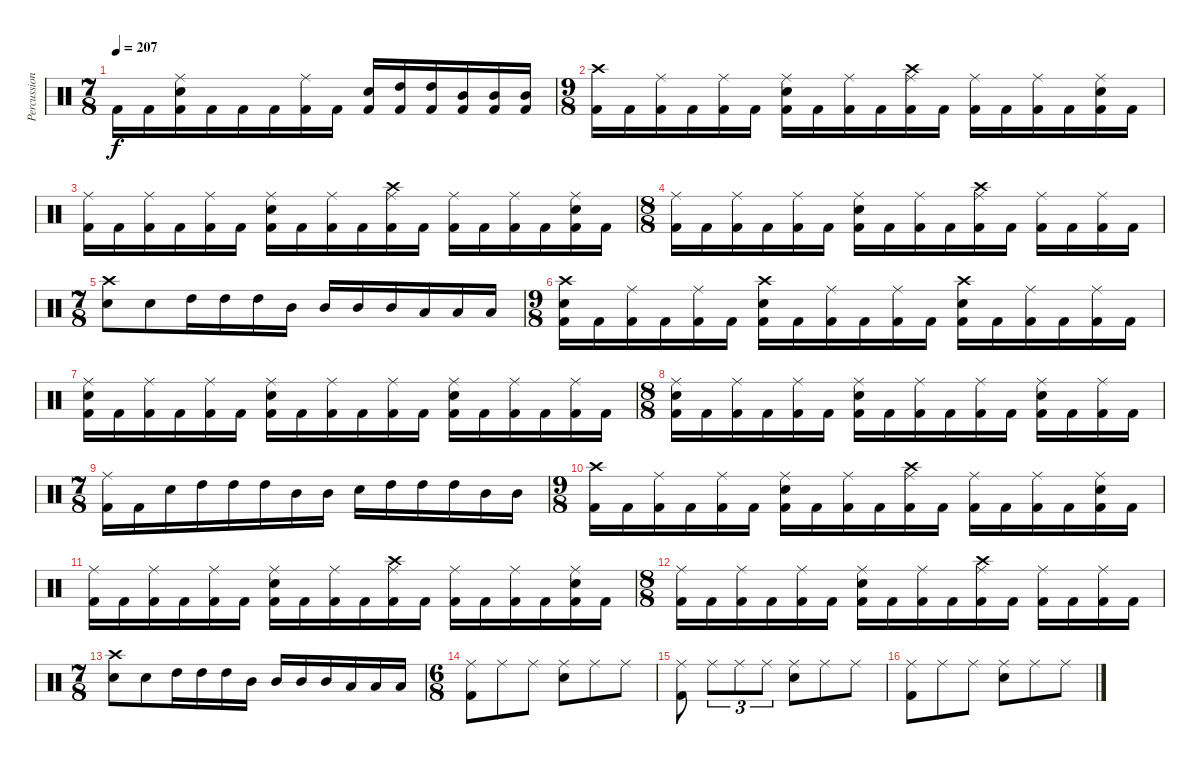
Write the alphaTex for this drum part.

\track ("Percussion" "Percussion") {instrument percussion}
\staff {score}
\articulation defaults
\ts (7 8)
\tempo 207
\clef neutral
\ks c "Kick (hit) 2".16{dy f} "Kick (hit) 2".16
("Ride (middle)" "Electric Snare (hit)" "Kick (hit) 2").16 "Kick (hit) 2".16 "Kick (hit) 2".16 "Kick (hit) 2".16 ("Ride (middle)" "Kick (hit) 2").16 "Kick (hit) 2".16 ("Electric Snare (hit)" "Kick (hit) 2").16 ("High Tom (hit)" "Kick (hit) 2").16 ("High Tom (hit)" "Kick (hit) 2").16 ("Mid Tom (hit)" "Kick (hit) 2").16 ("Mid Tom (hit)" "Kick (hit) 2").16 ("Mid Tom (hit)" "Kick (hit) 2").16 |
\ts (9 8)
("Crash high (hit)" "Kick (hit) 2").16 "Kick (hit) 2".16 ("Ride (middle)" "Kick (hit) 2").16 "Kick (hit) 2".16 ("Ride (middle)" "Kick (hit) 2").16 "Kick (hit) 2".16 ("Ride (middle)" "Electric Snare (hit)" "Kick (hit) 2").16 "Kick (hit) 2".16 ("Ride (middle)" "Kick (hit) 2").16 "Kick (hit) 2".16 ("Ride (middle)" "Crash high (hit)" "Kick (hit) 2").16 "Kick (hit) 2".16 ("Ride (middle)" "Kick (hit) 2").16 "Kick (hit) 2".16 ("Ride (middle)" "Kick (hit) 2").16 "Kick (hit) 2".16 ("Ride (middle)" "Electric Snare (hit)" "Kick (hit) 2").16 "Kick (hit) 2".16 |
("Ride (middle)" "Kick (hit) 2").16 "Kick (hit) 2".16 ("Ride (middle)" "Kick (hit) 2").16 "Kick (hit) 2".16 ("Ride (middle)" "Kick (hit) 2").16 "Kick (hit) 2".16 ("Ride (middle)" "Electric Snare (hit)" "Kick (hit) 2").16 "Kick (hit) 2".16 ("Ride (middle)" "Kick (hit) 2").16 "Kick (hit) 2".16 ("Ride (middle)" "Crash high (hit)" "Kick (hit) 2").16 "Kick (hit) 2".16 ("Ride (middle)" "Kick (hit) 2").16 "Kick (hit) 2".16 ("Ride (middle)" "Kick (hit) 2").16 "Kick (hit) 2".16 ("Ride (middle)" "Electric Snare (hit)" "Kick (hit) 2").16 "Kick (hit) 2".16 |
\ts (8 8)
("Ride (middle)" "Kick (hit) 2").16 "Kick (hit) 2".16 ("Ride (middle)" "Kick (hit) 2").16 "Kick (hit) 2".16 ("Ride (middle)" "Kick (hit) 2").16 "Kick (hit) 2".16 ("Ride (middle)" "Electric Snare (hit)" "Kick (hit) 2").16 "Kick (hit) 2".16 ("Ride (middle)" "Kick (hit) 2").16 "Kick (hit) 2".16 ("Ride (middle)" "Crash high (hit)" "Kick (hit) 2").16 "Kick (hit) 2".16 ("Ride (middle)" "Kick (hit) 2").16 "Kick (hit) 2".16 ("Ride (middle)" "Kick (hit) 2").16 "Kick (hit) 2".16 |
\ts (7 8)
("Crash high (hit)" "Electric Snare (hit)").8 "Electric Snare (hit)".8 "High Tom (hit)".16 "High Tom (hit)".16 "High Tom (hit)".16 "Mid Tom (hit)".16 "Mid Tom (hit)".16 "Mid Tom (hit)".16 "Mid Tom (hit)".16 "Low Tom (hit)".16 "Low Tom (hit)".16 "Low Tom (hit)".16 |
\ts (9 8)
("Crash high (hit)" "Electric Snare (hit)" "Kick (hit) 2").16 "Kick (hit) 2".16 ("Ride (middle)" "Kick (hit) 2").16 "Kick (hit) 2".16 ("Ride (middle)" "Kick (hit) 2").16 "Kick (hit) 2".16 ("Crash high (hit)" "Electric Snare (hit)" "Kick (hit) 2").16 "Kick (hit) 2".16 ("Ride (middle)" "Kick (hit) 2").16 "Kick (hit) 2".16 ("Ride (middle)" "Kick (hit) 2").16 "Kick (hit) 2".16 ("Crash high (hit)" "Electric Snare (hit)" "Kick (hit) 2").16 "Kick (hit) 2".16 ("Ride (middle)" "Kick (hit) 2").16 "Kick (hit) 2".16 ("Ride (middle)" "Kick (hit) 2").16 "Kick (hit) 2".16 |
("Ride (middle)" "Electric Snare (hit)" "Kick (hit) 2").16 "Kick (hit) 2".16 ("Ride (middle)" "Kick (hit) 2").16 "Kick (hit) 2".16 ("Ride (middle)" "Kick (hit) 2").16 "Kick (hit) 2".16 ("Ride (middle)" "Electric Snare (hit)" "Kick (hit) 2").16 "Kick (hit) 2".16 ("Ride (middle)" "Kick (hit) 2").16 "Kick (hit) 2".16 ("Ride (middle)" "Kick (hit) 2").16 "Kick (hit) 2".16 ("Ride (middle)" "Electric Snare (hit)" "Kick (hit) 2").16 "Kick (hit) 2".16 ("Ride (middle)" "Kick (hit) 2").16 "Kick (hit) 2".16 ("Ride (middle)" "Kick (hit) 2").16 "Kick (hit) 2".16 |
\ts (8 8)
("Ride (middle)" "Electric Snare (hit)" "Kick (hit) 2").16 "Kick (hit) 2".16 ("Ride (middle)" "Kick (hit) 2").16 "Kick (hit) 2".16 ("Ride (middle)" "Kick (hit) 2").16 "Kick (hit) 2".16 ("Ride (middle)" "Electric Snare (hit)" "Kick (hit) 2").16 "Kick (hit) 2".16 ("Ride (middle)" "Kick (hit) 2").16 "Kick (hit) 2".16 ("Ride (middle)" "Kick (hit) 2").16 "Kick (hit) 2".16 ("Ride (middle)" "Electric Snare (hit)" "Kick (hit) 2").16 "Kick (hit) 2".16 ("Ride (middle)" "Kick (hit) 2").16 "Kick (hit) 2".16 |
\ts (7 8)
("Ride (middle)" "Kick (hit) 2").16 "Kick (hit) 2".16 "Electric Snare (hit)".16 "High Tom (hit)".16 "High Tom (hit)".16 "High Tom (hit)".16 "Mid Tom (hit)".16 "Mid Tom (hit)".16 "Electric Snare (hit)".16 "High Tom (hit)".16 "High Tom (hit)".16 "High Tom (hit)".16 "Mid Tom (hit)".16 "Mid Tom (hit)".16 |
\ts (9 8)
("Crash high (hit)" "Kick (hit) 2").16 "Kick (hit) 2".16 ("Ride (middle)" "Kick (hit) 2").16 "Kick (hit) 2".16 ("Ride (middle)" "Kick (hit) 2").16 "Kick (hit) 2".16 ("Ride (middle)" "Electric Snare (hit)" "Kick (hit) 2").16 "Kick (hit) 2".16 ("Ride (middle)" "Kick (hit) 2").16 "Kick (hit) 2".16 ("Ride (middle)" "Crash high (hit)" "Kick (hit) 2").16 "Kick (hit) 2".16 ("Ride (middle)" "Kick (hit) 2").16 "Kick (hit) 2".16 ("Ride (middle)" "Kick (hit) 2").16 "Kick (hit) 2".16 ("Ride (middle)" "Electric Snare (hit)" "Kick (hit) 2").16 "Kick (hit) 2".16 |
("Ride (middle)" "Kick (hit) 2").16 "Kick (hit) 2".16 ("Ride (middle)" "Kick (hit) 2").16 "Kick (hit) 2".16 ("Ride (middle)" "Kick (hit) 2").16 "Kick (hit) 2".16 ("Ride (middle)" "Electric Snare (hit)" "Kick (hit) 2").16 "Kick (hit) 2".16 ("Ride (middle)" "Kick (hit) 2").16 "Kick (hit) 2".16 ("Ride (middle)" "Crash high (hit)" "Kick (hit) 2").16 "Kick (hit) 2".16 ("Ride (middle)" "Kick (hit) 2").16 "Kick (hit) 2".16 ("Ride (middle)" "Kick (hit) 2").16 "Kick (hit) 2".16 ("Ride (middle)" "Electric Snare (hit)" "Kick (hit) 2").16 "Kick (hit) 2".16 |
\ts (8 8)
("Ride (middle)" "Kick (hit) 2").16 "Kick (hit) 2".16 ("Ride (middle)" "Kick (hit) 2").16 "Kick (hit) 2".16 ("Ride (middle)" "Kick (hit) 2").16 "Kick (hit) 2".16 ("Ride (middle)" "Electric Snare (hit)" "Kick (hit) 2").16 "Kick (hit) 2".16 ("Ride (middle)" "Kick (hit) 2").16 "Kick (hit) 2".16 ("Ride (middle)" "Crash high (hit)" "Kick (hit) 2").16 "Kick (hit) 2".16 ("Ride (middle)" "Kick (hit) 2").16 "Kick (hit) 2".16 ("Ride (middle)" "Kick (hit) 2").16 "Kick (hit) 2".16 |
\ts (7 8)
("Crash high (hit)" "Electric Snare (hit)").8 "Electric Snare (hit)".8 "High Tom (hit)".16 "High Tom (hit)".16 "High Tom (hit)".16 "Mid Tom (hit)".16 "Mid Tom (hit)".16 "Mid Tom (hit)".16 "Mid Tom (hit)".16 "Low Tom (hit)".16 "Low Tom (hit)".16 "Low Tom (hit)".16 |
\ts (6 8)
("Ride (middle)" "Kick (hit) 2").8 "Ride (middle)".8 "Ride (middle)".8 ("Ride (middle)" "Electric Snare (hit)").8 "Ride (middle)".8 "Ride (middle)".8 |
("Ride (middle)" "Kick (hit) 2").8 "Ride (middle)".8{tu (3 2)} "Ride (middle)".8{tu (3 2)} "Ride (middle)".8{tu (3 2)} ("Ride (middle)" "Electric Snare (hit)").8 "Ride (middle)".8 "Ride (middle)".8 |
("Ride (middle)" "Kick (hit) 2").8 "Ride (middle)".8 "Ride (middle)".8 ("Ride (middle)" "Electric Snare (hit)").8 "Ride (middle)".8 "Ride (middle)".8
